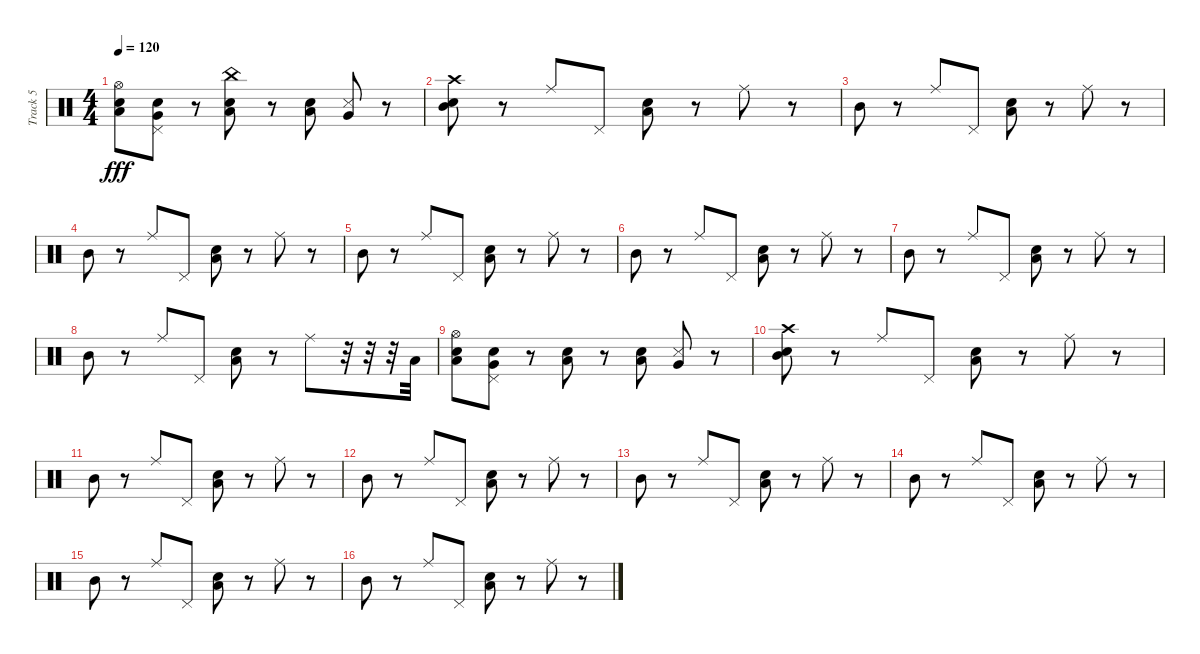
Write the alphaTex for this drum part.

\track ("Track 5" "Track 5") {instrument percussion}
\staff {score}
\articulation defaults
\ts (4 4)
\tempo 120
\clef neutral
\ks c
("Hi-Hat (open)" "Low Tom (hit)" "Electric Snare (hit)").8{dy fff} ("Pedal Hi-Hat (hit)" "Very Low Tom (hit)" "Snare (hit) 2").8 r.8 ("China (hit)" "Low Tom (hit)" "Electric Snare (hit)").8 r.8 ("Low Tom (hit)" "Electric Snare (hit)").8 ("Very Low Tom (hit)" "Snare (side stick) 3").8 r.8 |
("Crash high (hit)" "Mid Tom (hit)" "Electric Snare (hit)").8 r.8 "Ride (middle)".8 "Pedal Hi-Hat (hit)".8 ("Low Tom (hit)" "Snare (hit) 2").8 r.8 "Ride (middle)".8 r.8 |
"Mid Tom (hit)".8 r.8 "Ride (middle)".8 "Pedal Hi-Hat (hit)".8 ("Low Tom (hit)" "Snare (hit) 2").8 r.8 "Ride (middle)".8 r.8 |
"Mid Tom (hit)".8 r.8 "Ride (middle)".8 "Pedal Hi-Hat (hit)".8 ("Low Tom (hit)" "Snare (hit) 2").8 r.8 "Ride (middle)".8 r.8 |
"Mid Tom (hit)".8 r.8 "Ride (middle)".8 "Pedal Hi-Hat (hit)".8 ("Low Tom (hit)" "Snare (hit) 2").8 r.8 "Ride (middle)".8 r.8 |
"Mid Tom (hit)".8 r.8 "Ride (middle)".8 "Pedal Hi-Hat (hit)".8 ("Low Tom (hit)" "Snare (hit) 2").8 r.8 "Ride (middle)".8 r.8 |
"Mid Tom (hit)".8 r.8 "Ride (middle)".8 "Pedal Hi-Hat (hit)".8 ("Low Tom (hit)" "Snare (hit) 2").8 r.8 "Ride (middle)".8 r.8 |
"Mid Tom (hit)".8 r.8 "Ride (middle)".8 "Pedal Hi-Hat (hit)".8 ("Low Tom (hit)" "Snare (hit) 2").8 r.8 "Ride (middle)".8 r.32 r.32 r.32 "Low Tom (hit)".32 |
("Hi-Hat (open)" "Low Tom (hit)" "Electric Snare (hit)").8 ("Pedal Hi-Hat (hit)" "Very Low Tom (hit)" "Snare (hit) 2").8 r.8 ("Low Tom (hit)" "Electric Snare (hit)").8 r.8 ("Low Tom (hit)" "Electric Snare (hit)").8 ("Very Low Tom (hit)" "Snare (side stick) 3").8 r.8 |
("Crash high (hit)" "Mid Tom (hit)" "Electric Snare (hit)").8 r.8 "Ride (middle)".8 "Pedal Hi-Hat (hit)".8 ("Low Tom (hit)" "Snare (hit) 2").8 r.8 "Ride (middle)".8 r.8 |
"Mid Tom (hit)".8 r.8 "Ride (middle)".8 "Pedal Hi-Hat (hit)".8 ("Low Tom (hit)" "Snare (hit) 2").8 r.8 "Ride (middle)".8 r.8 |
"Mid Tom (hit)".8 r.8 "Ride (middle)".8 "Pedal Hi-Hat (hit)".8 ("Low Tom (hit)" "Snare (hit) 2").8 r.8 "Ride (middle)".8 r.8 |
"Mid Tom (hit)".8 r.8 "Ride (middle)".8 "Pedal Hi-Hat (hit)".8 ("Low Tom (hit)" "Snare (hit) 2").8 r.8 "Ride (middle)".8 r.8 |
"Mid Tom (hit)".8 r.8 "Ride (middle)".8 "Pedal Hi-Hat (hit)".8 ("Low Tom (hit)" "Snare (hit) 2").8 r.8 "Ride (middle)".8 r.8 |
"Mid Tom (hit)".8 r.8 "Ride (middle)".8 "Pedal Hi-Hat (hit)".8 ("Low Tom (hit)" "Snare (hit) 2").8 r.8 "Ride (middle)".8 r.8 |
"Mid Tom (hit)".8 r.8 "Ride (middle)".8 "Pedal Hi-Hat (hit)".8 ("Low Tom (hit)" "Snare (hit) 2").8 r.8 "Ride (middle)".8 r.8
